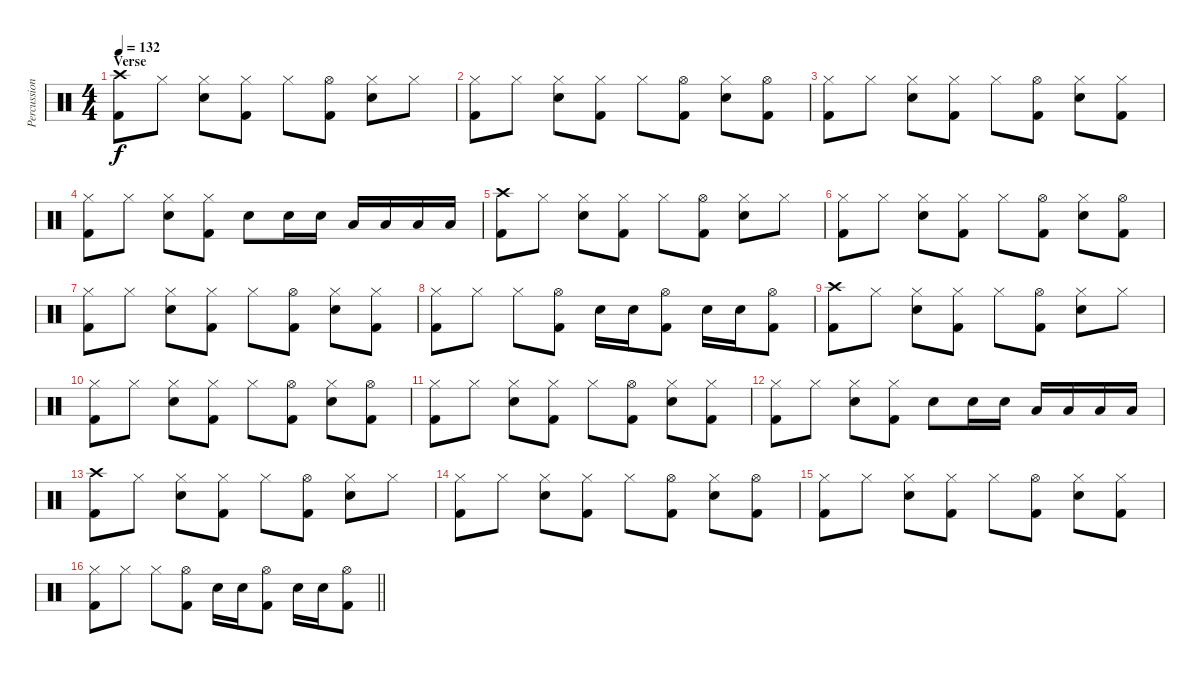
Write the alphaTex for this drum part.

\track ("Percussioni" "Percussion") {instrument percussion}
\staff {score}
\articulation defaults
\ts (4 4)
\section ("" "Verse")
\tempo 132
\clef neutral
\ks c
("Crash high (hit)" "Kick (hit) 2").8{dy f} "Hi-Hat (closed)".8 ("Hi-Hat (closed)" "Snare (hit) 2").8 ("Hi-Hat (closed)" "Kick (hit) 2").8 "Hi-Hat (closed)".8 ("Hi-Hat (open)" "Kick (hit) 2").8 ("Hi-Hat (closed)" "Snare (hit) 2").8 "Hi-Hat (closed)".8 |
("Hi-Hat (closed)" "Kick (hit) 2").8 "Hi-Hat (closed)".8 ("Hi-Hat (closed)" "Snare (hit) 2").8 ("Hi-Hat (closed)" "Kick (hit) 2").8 "Hi-Hat (closed)".8 ("Hi-Hat (open)" "Kick (hit) 2").8 ("Hi-Hat (closed)" "Snare (hit) 2").8 ("Hi-Hat (open)" "Kick (hit) 2").8 |
("Hi-Hat (closed)" "Kick (hit) 2").8 "Hi-Hat (closed)".8 ("Hi-Hat (closed)" "Snare (hit) 2").8 ("Hi-Hat (closed)" "Kick (hit) 2").8 "Hi-Hat (closed)".8 ("Hi-Hat (open)" "Kick (hit) 2").8 ("Hi-Hat (closed)" "Snare (hit) 2").8 ("Hi-Hat (closed)" "Kick (hit) 2").8 |
("Hi-Hat (closed)" "Kick (hit) 2").8 "Hi-Hat (closed)".8 ("Hi-Hat (closed)" "Snare (hit) 2").8 ("Hi-Hat (closed)" "Kick (hit) 2").8 "Snare (hit) 2".8 "Snare (hit) 2".16 "Snare (hit) 2".16 "Low Floor Tom (hit)".16 "Low Floor Tom (hit)".16 "Low Floor Tom (hit)".16 "Low Floor Tom (hit)".16 |
("Crash high (hit)" "Kick (hit) 2").8 "Hi-Hat (closed)".8 ("Hi-Hat (closed)" "Snare (hit) 2").8 ("Hi-Hat (closed)" "Kick (hit) 2").8 "Hi-Hat (closed)".8 ("Hi-Hat (open)" "Kick (hit) 2").8 ("Hi-Hat (closed)" "Snare (hit) 2").8 "Hi-Hat (closed)".8 |
("Hi-Hat (closed)" "Kick (hit) 2").8 "Hi-Hat (closed)".8 ("Hi-Hat (closed)" "Snare (hit) 2").8 ("Hi-Hat (closed)" "Kick (hit) 2").8 "Hi-Hat (closed)".8 ("Hi-Hat (open)" "Kick (hit) 2").8 ("Hi-Hat (closed)" "Snare (hit) 2").8 ("Hi-Hat (open)" "Kick (hit) 2").8 |
("Hi-Hat (closed)" "Kick (hit) 2").8 "Hi-Hat (closed)".8 ("Hi-Hat (closed)" "Snare (hit) 2").8 ("Hi-Hat (closed)" "Kick (hit) 2").8 "Hi-Hat (closed)".8 ("Hi-Hat (open)" "Kick (hit) 2").8 ("Hi-Hat (closed)" "Snare (hit) 2").8 ("Hi-Hat (closed)" "Kick (hit) 2").8 |
("Hi-Hat (closed)" "Kick (hit) 2").8 "Hi-Hat (closed)".8 "Hi-Hat (closed)".8 ("Hi-Hat (open)" "Kick (hit) 2").8 "Snare (hit) 2".16 "Snare (hit) 2".16 ("Hi-Hat (open)" "Kick (hit) 2").8 "Snare (hit) 2".16 "Snare (hit) 2".16 ("Hi-Hat (open)" "Kick (hit) 2").8 |
("Crash high (hit)" "Kick (hit) 2").8 "Hi-Hat (closed)".8 ("Hi-Hat (closed)" "Snare (hit) 2").8 ("Hi-Hat (closed)" "Kick (hit) 2").8 "Hi-Hat (closed)".8 ("Hi-Hat (open)" "Kick (hit) 2").8 ("Hi-Hat (closed)" "Snare (hit) 2").8 "Hi-Hat (closed)".8 |
("Hi-Hat (closed)" "Kick (hit) 2").8 "Hi-Hat (closed)".8 ("Hi-Hat (closed)" "Snare (hit) 2").8 ("Hi-Hat (closed)" "Kick (hit) 2").8 "Hi-Hat (closed)".8 ("Hi-Hat (open)" "Kick (hit) 2").8 ("Hi-Hat (closed)" "Snare (hit) 2").8 ("Hi-Hat (open)" "Kick (hit) 2").8 |
("Hi-Hat (closed)" "Kick (hit) 2").8 "Hi-Hat (closed)".8 ("Hi-Hat (closed)" "Snare (hit) 2").8 ("Hi-Hat (closed)" "Kick (hit) 2").8 "Hi-Hat (closed)".8 ("Hi-Hat (open)" "Kick (hit) 2").8 ("Hi-Hat (closed)" "Snare (hit) 2").8 ("Hi-Hat (closed)" "Kick (hit) 2").8 |
("Hi-Hat (closed)" "Kick (hit) 2").8 "Hi-Hat (closed)".8 ("Hi-Hat (closed)" "Snare (hit) 2").8 ("Hi-Hat (closed)" "Kick (hit) 2").8 "Snare (hit) 2".8 "Snare (hit) 2".16 "Snare (hit) 2".16 "Low Floor Tom (hit)".16 "Low Floor Tom (hit)".16 "Low Floor Tom (hit)".16 "Low Floor Tom (hit)".16 |
("Crash high (hit)" "Kick (hit) 2").8 "Hi-Hat (closed)".8 ("Hi-Hat (closed)" "Snare (hit) 2").8 ("Hi-Hat (closed)" "Kick (hit) 2").8 "Hi-Hat (closed)".8 ("Hi-Hat (open)" "Kick (hit) 2").8 ("Hi-Hat (closed)" "Snare (hit) 2").8 "Hi-Hat (closed)".8 |
("Hi-Hat (closed)" "Kick (hit) 2").8 "Hi-Hat (closed)".8 ("Hi-Hat (closed)" "Snare (hit) 2").8 ("Hi-Hat (closed)" "Kick (hit) 2").8 "Hi-Hat (closed)".8 ("Hi-Hat (open)" "Kick (hit) 2").8 ("Hi-Hat (closed)" "Snare (hit) 2").8 ("Hi-Hat (open)" "Kick (hit) 2").8 |
("Hi-Hat (closed)" "Kick (hit) 2").8 "Hi-Hat (closed)".8 ("Hi-Hat (closed)" "Snare (hit) 2").8 ("Hi-Hat (closed)" "Kick (hit) 2").8 "Hi-Hat (closed)".8 ("Hi-Hat (open)" "Kick (hit) 2").8 ("Hi-Hat (closed)" "Snare (hit) 2").8 ("Hi-Hat (closed)" "Kick (hit) 2").8 |
\barLineRight lightlight
("Hi-Hat (closed)" "Kick (hit) 2").8 "Hi-Hat (closed)".8 "Hi-Hat (closed)".8 ("Hi-Hat (open)" "Kick (hit) 2").8 "Snare (hit) 2".16 "Snare (hit) 2".16 ("Hi-Hat (open)" "Kick (hit) 2").8 "Snare (hit) 2".16 "Snare (hit) 2".16 ("Hi-Hat (open)" "Kick (hit) 2").8
